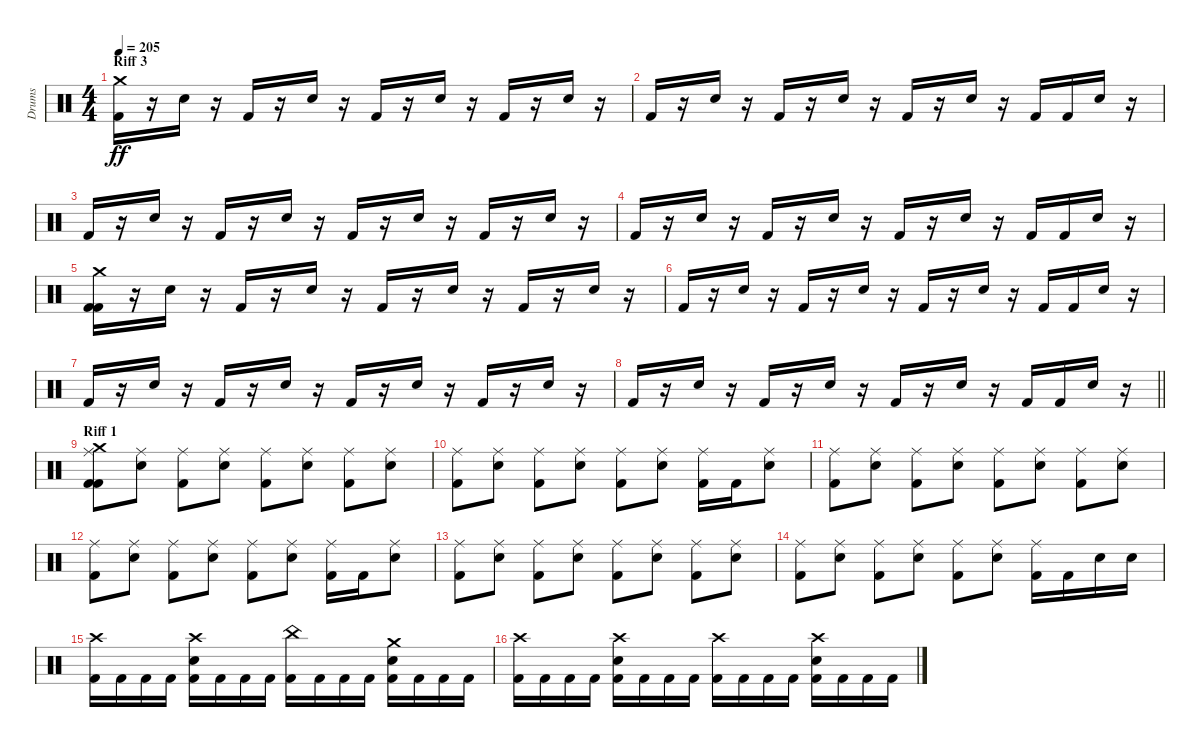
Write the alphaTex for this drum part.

\track ("Drums" "Drums") {instrument percussion}
\staff {score}
\articulation defaults
\ts (4 4)
\section ("" "Riff 3")
\tempo 205
\clef neutral
\ks c
("Crash medium (hit)" "Kick (hit) 2").16{dy ff} r.16 "Snare (hit) 2".16 r.16 "Kick (hit) 2".16 r.16 "Snare (hit) 2".16 r.16 "Kick (hit) 2".16 r.16 "Snare (hit) 2".16 r.16 "Kick (hit) 2".16 r.16 "Snare (hit) 2".16 r.16 |
"Kick (hit) 2".16 r.16 "Snare (hit) 2".16 r.16 "Kick (hit) 2".16 r.16 "Snare (hit) 2".16 r.16 "Kick (hit) 2".16 r.16 "Snare (hit) 2".16 r.16 "Kick (hit) 2".16 "Kick (hit) 2".16 "Snare (hit) 2".16 r.16 |
"Kick (hit) 2".16 r.16 "Snare (hit) 2".16 r.16 "Kick (hit) 2".16 r.16 "Snare (hit) 2".16 r.16 "Kick (hit) 2".16 r.16 "Snare (hit) 2".16 r.16 "Kick (hit) 2".16 r.16 "Snare (hit) 2".16 r.16 |
"Kick (hit) 2".16 r.16 "Snare (hit) 2".16 r.16 "Kick (hit) 2".16 r.16 "Snare (hit) 2".16 r.16 "Kick (hit) 2".16 r.16 "Snare (hit) 2".16 r.16 "Kick (hit) 2".16 "Kick (hit) 2".16 "Snare (hit) 2".16 r.16 |
("Kick (hit) 2" "Crash medium (hit)" "Kick (hit) 2").16 r.16 "Snare (hit) 2".16 r.16 "Kick (hit) 2".16 r.16 "Snare (hit) 2".16 r.16 "Kick (hit) 2".16 r.16 "Snare (hit) 2".16 r.16 "Kick (hit) 2".16 r.16 "Snare (hit) 2".16 r.16 |
"Kick (hit) 2".16 r.16 "Snare (hit) 2".16 r.16 "Kick (hit) 2".16 r.16 "Snare (hit) 2".16 r.16 "Kick (hit) 2".16 r.16 "Snare (hit) 2".16 r.16 "Kick (hit) 2".16 "Kick (hit) 2".16 "Snare (hit) 2".16 r.16 |
"Kick (hit) 2".16 r.16 "Snare (hit) 2".16 r.16 "Kick (hit) 2".16 r.16 "Snare (hit) 2".16 r.16 "Kick (hit) 2".16 r.16 "Snare (hit) 2".16 r.16 "Kick (hit) 2".16 r.16 "Snare (hit) 2".16 r.16 |
\barLineRight lightlight "Kick (hit) 2".16
r.16 "Snare (hit) 2".16 r.16 "Kick (hit) 2".16 r.16 "Snare (hit) 2".16 r.16 "Kick (hit) 2".16 r.16 "Snare (hit) 2".16 r.16 "Kick (hit) 2".16 "Kick (hit) 2".16 "Snare (hit) 2".16 r.16 |
\section ("" "Riff 1")
("Kick (hit) 2" "Crash medium (hit)" "Kick (hit) 2" "Ride (middle)").8 ("Snare (hit) 2" "Ride (middle)").8 ("Kick (hit) 2" "Ride (middle)").8 ("Snare (hit) 2" "Ride (middle)").8 ("Kick (hit) 2" "Ride (middle)").8 ("Snare (hit) 2" "Ride (middle)").8 ("Kick (hit) 2" "Ride (middle)").8 ("Snare (hit) 2" "Ride (middle)").8 |
("Kick (hit) 2" "Ride (middle)").8 ("Snare (hit) 2" "Ride (middle)").8 ("Kick (hit) 2" "Ride (middle)").8 ("Snare (hit) 2" "Ride (middle)").8 ("Kick (hit) 2" "Ride (middle)").8 ("Snare (hit) 2" "Ride (middle)").8 ("Kick (hit) 2" "Ride (middle)").16 "Kick (hit) 2".16 ("Snare (hit) 2" "Ride (middle)").8 |
("Kick (hit) 2" "Ride (middle)").8 ("Snare (hit) 2" "Ride (middle)").8 ("Kick (hit) 2" "Ride (middle)").8 ("Snare (hit) 2" "Ride (middle)").8 ("Kick (hit) 2" "Ride (middle)").8 ("Snare (hit) 2" "Ride (middle)").8 ("Kick (hit) 2" "Ride (middle)").8 ("Snare (hit) 2" "Ride (middle)").8 |
("Kick (hit) 2" "Ride (middle)").8 ("Snare (hit) 2" "Ride (middle)").8 ("Kick (hit) 2" "Ride (middle)").8 ("Snare (hit) 2" "Ride (middle)").8 ("Kick (hit) 2" "Ride (middle)").8 ("Snare (hit) 2" "Ride (middle)").8 ("Kick (hit) 2" "Ride (middle)").16 "Kick (hit) 2".16 ("Snare (hit) 2" "Ride (middle)").8 |
("Kick (hit) 2" "Ride (middle)").8 ("Snare (hit) 2" "Ride (middle)").8 ("Kick (hit) 2" "Ride (middle)").8 ("Snare (hit) 2" "Ride (middle)").8 ("Kick (hit) 2" "Ride (middle)").8 ("Snare (hit) 2" "Ride (middle)").8 ("Kick (hit) 2" "Ride (middle)").8 ("Snare (hit) 2" "Ride (middle)").8 |
("Kick (hit) 2" "Ride (middle)").8 ("Snare (hit) 2" "Ride (middle)").8 ("Kick (hit) 2" "Ride (middle)").8 ("Snare (hit) 2" "Ride (middle)").8 ("Kick (hit) 2" "Ride (middle)").8 ("Snare (hit) 2" "Ride (middle)").8 ("Kick (hit) 2" "Ride (middle)").16 "Kick (hit) 2".16 "Snare (hit) 2".16 "Snare (hit) 2".16 |
("Crash high (hit)" "Kick (hit) 2").16 "Kick (hit) 2".16 "Kick (hit) 2".16 "Kick (hit) 2".16 ("Crash high (hit)" "Kick (hit) 2" "Snare (hit) 2").16 "Kick (hit) 2".16 "Kick (hit) 2".16 "Kick (hit) 2".16 ("China (hit)" "Kick (hit) 2").16 "Kick (hit) 2".16 "Kick (hit) 2".16 "Kick (hit) 2".16 ("Crash medium (hit)" "Kick (hit) 2" "Snare (hit) 2").16 "Kick (hit) 2".16 "Kick (hit) 2".16 "Kick (hit) 2".16 |
("Crash high (hit)" "Kick (hit) 2").16 "Kick (hit) 2".16 "Kick (hit) 2".16 "Kick (hit) 2".16 ("Crash high (hit)" "Kick (hit) 2" "Snare (hit) 2").16 "Kick (hit) 2".16 "Kick (hit) 2".16 "Kick (hit) 2".16 ("Crash high (hit)" "Kick (hit) 2").16 "Kick (hit) 2".16 "Kick (hit) 2".16 "Kick (hit) 2".16 ("Crash high (hit)" "Kick (hit) 2" "Snare (hit) 2").16 "Kick (hit) 2".16 "Kick (hit) 2".16 "Kick (hit) 2".16
